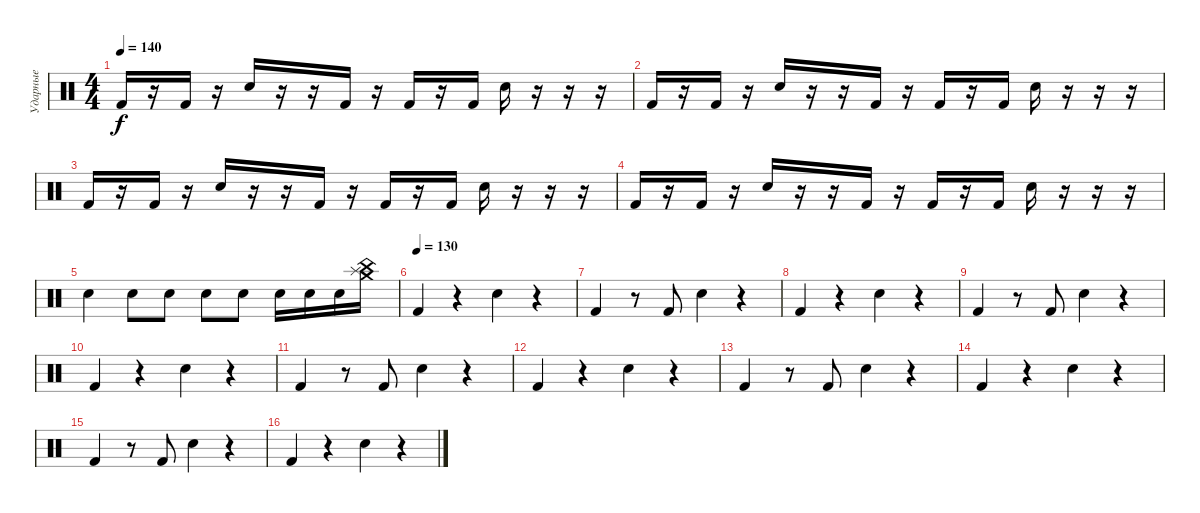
\track ("Ударные" "Ударные") {instrument percussion}
\staff {score}
\articulation defaults
\ts (4 4)
\tempo 140
\clef neutral
\ks c "Kick (hit) 2".16{dy f}
r.16 "Kick (hit) 2".16 r.16 "Electric Snare (hit)".16 r.16 r.16 "Kick (hit) 2".16 r.16 "Kick (hit) 2".16 r.16 "Kick (hit) 2".16 "Electric Snare (hit)".16 r.16 r.16 r.16 |
"Kick (hit) 2".16 r.16 "Kick (hit) 2".16 r.16 "Electric Snare (hit)".16 r.16 r.16 "Kick (hit) 2".16 r.16 "Kick (hit) 2".16 r.16 "Kick (hit) 2".16 "Electric Snare (hit)".16 r.16 r.16 r.16 |
"Kick (hit) 2".16 r.16 "Kick (hit) 2".16 r.16 "Electric Snare (hit)".16 r.16 r.16 "Kick (hit) 2".16 r.16 "Kick (hit) 2".16 r.16 "Kick (hit) 2".16 "Electric Snare (hit)".16 r.16 r.16 r.16 |
"Kick (hit) 2".16 r.16 "Kick (hit) 2".16 r.16 "Electric Snare (hit)".16 r.16 r.16 "Kick (hit) 2".16 r.16 "Kick (hit) 2".16 r.16 "Kick (hit) 2".16 "Electric Snare (hit)".16 r.16 r.16 r.16 |
"Hand Clap (hit)".4 "Hand Clap (hit)".8 "Hand Clap (hit)".8 "Hand Clap (hit)".8 "Hand Clap (hit)".8 "Hand Clap (hit)".16 "Hand Clap (hit)".16 "Hand Clap (hit)".16 ("Crash medium (hit)" "Splash (hit)" "China (hit)").16 |
\tempo (130)
"Kick (hit) 2".4 r.4 "Electric Snare (hit)".4 r.4 |
"Kick (hit) 2".4 r.8 "Kick (hit) 2".8 "Electric Snare (hit)".4 r.4 |
"Kick (hit) 2".4 r.4 "Electric Snare (hit)".4 r.4 |
"Kick (hit) 2".4 r.8 "Kick (hit) 2".8 "Electric Snare (hit)".4 r.4 |
"Kick (hit) 2".4 r.4 "Electric Snare (hit)".4 r.4 |
"Kick (hit) 2".4 r.8 "Kick (hit) 2".8 "Electric Snare (hit)".4 r.4 |
"Kick (hit) 2".4 r.4 "Electric Snare (hit)".4 r.4 |
"Kick (hit) 2".4 r.8 "Kick (hit) 2".8 "Electric Snare (hit)".4 r.4 |
"Kick (hit) 2".4 r.4 "Electric Snare (hit)".4 r.4 |
"Kick (hit) 2".4 r.8 "Kick (hit) 2".8 "Electric Snare (hit)".4 r.4 |
"Kick (hit) 2".4 r.4 "Electric Snare (hit)".4 r.4
